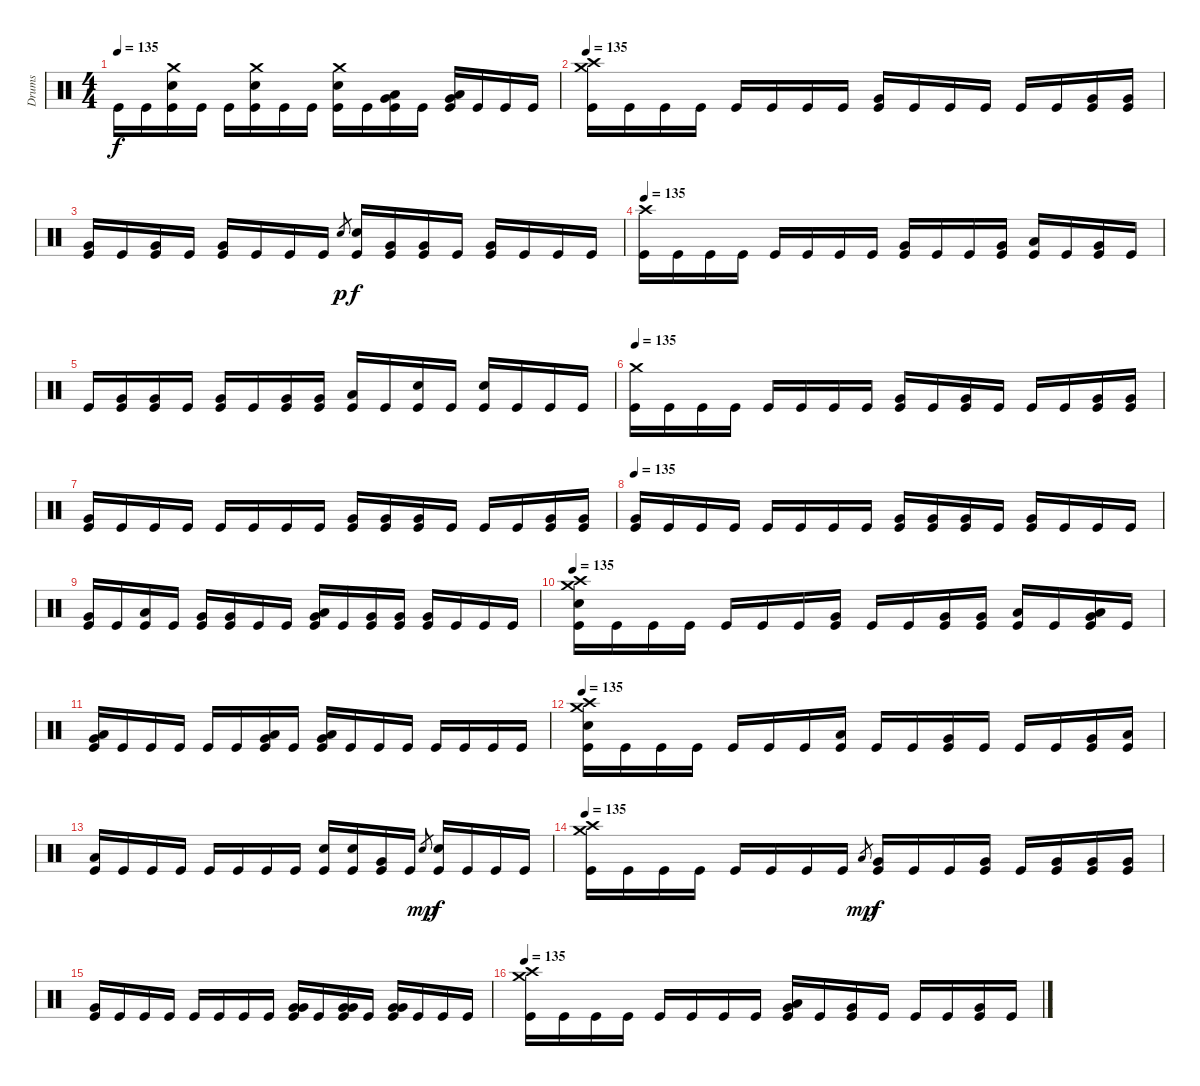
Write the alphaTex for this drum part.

\track ("Drums" "Drums") {instrument percussion}
\staff {score}
\articulation defaults
\ts (4 4)
\tempo 135
\clef neutral
\ks c "Kick (hit)".16{dy f} "Kick (hit)".16
("Kick (hit)" "Electric Snare (hit)" "Crash medium (hit)").16 "Kick (hit)".16 "Kick (hit)".16 ("Kick (hit)" "Electric Snare (hit)" "Crash medium (hit)").16 "Kick (hit)".16 "Kick (hit)".16 ("Kick (hit)" "Electric Snare (hit)" "Crash medium (hit)").16 "Kick (hit)".16 ("Kick (hit)" "Very Low Tom (hit)" "Low Floor Tom (hit)").16 "Kick (hit)".16 ("Kick (hit)" "Very Low Tom (hit)" "Low Floor Tom (hit)").16 "Kick (hit)".16 "Kick (hit)".16 "Kick (hit)".16 |
\tempo 135
("Kick (hit)" "Crash high (hit)" "Crash medium (hit)").16 "Kick (hit)".16 "Kick (hit)".16 "Kick (hit)".16 "Kick (hit)".16 "Kick (hit)".16 "Kick (hit)".16 "Kick (hit)".16 ("Kick (hit)" "Very Low Tom (hit)").16 "Kick (hit)".16 "Kick (hit)".16 "Kick (hit)".16 "Kick (hit)".16 "Kick (hit)".16 ("Kick (hit)" "Very Low Tom (hit)").16 ("Kick (hit)" "Very Low Tom (hit)").16 |
("Kick (hit)" "Very Low Tom (hit)").16 "Kick (hit)".16 ("Kick (hit)" "Very Low Tom (hit)").16 "Kick (hit)".16 ("Kick (hit)" "Very Low Tom (hit)").16 "Kick (hit)".16 "Kick (hit)".16 "Kick (hit)".16 "Electric Snare (hit)".8{gr dy p} ("Kick (hit)" "Electric Snare (hit)").16{dy f} ("Kick (hit)" "Very Low Tom (hit)").16 ("Kick (hit)" "Very Low Tom (hit)").16 "Kick (hit)".16 ("Kick (hit)" "Very Low Tom (hit)").16 "Kick (hit)".16 "Kick (hit)".16 "Kick (hit)".16 |
\tempo 135
("Kick (hit)" "Crash high (hit)").16 "Kick (hit)".16 "Kick (hit)".16 "Kick (hit)".16 "Kick (hit)".16 "Kick (hit)".16 "Kick (hit)".16 "Kick (hit)".16 ("Kick (hit)" "Very Low Tom (hit)").16 "Kick (hit)".16 "Kick (hit)".16 ("Kick (hit)" "Very Low Tom (hit)").16 ("Kick (hit)" "Low Floor Tom (hit)").16 "Kick (hit)".16 ("Kick (hit)" "Very Low Tom (hit)").16 "Kick (hit)".16 |
"Kick (hit)".16 ("Kick (hit)" "Very Low Tom (hit)").16 ("Kick (hit)" "Very Low Tom (hit)").16 "Kick (hit)".16 ("Kick (hit)" "Very Low Tom (hit)").16 "Kick (hit)".16 ("Kick (hit)" "Very Low Tom (hit)").16 ("Kick (hit)" "Very Low Tom (hit)").16 ("Kick (hit)" "Low Floor Tom (hit)").16 "Kick (hit)".16 ("Kick (hit)" "Electric Snare (hit)").16 "Kick (hit)".16 ("Kick (hit)" "Electric Snare (hit)").16 "Kick (hit)".16 "Kick (hit)".16 "Kick (hit)".16 |
\tempo 135
("Kick (hit)" "Crash medium (hit)").16 "Kick (hit)".16 "Kick (hit)".16 "Kick (hit)".16 "Kick (hit)".16 "Kick (hit)".16 "Kick (hit)".16 "Kick (hit)".16 ("Kick (hit)" "Very Low Tom (hit)").16 "Kick (hit)".16 ("Kick (hit)" "Very Low Tom (hit)").16 "Kick (hit)".16 "Kick (hit)".16 "Kick (hit)".16 ("Kick (hit)" "Very Low Tom (hit)").16 ("Kick (hit)" "Very Low Tom (hit)").16 |
("Kick (hit)" "Very Low Tom (hit)").16 "Kick (hit)".16 "Kick (hit)".16 "Kick (hit)".16 "Kick (hit)".16 "Kick (hit)".16 "Kick (hit)".16 "Kick (hit)".16 ("Kick (hit)" "Very Low Tom (hit)").16 ("Kick (hit)" "Very Low Tom (hit)").16 ("Kick (hit)" "Very Low Tom (hit)").16 "Kick (hit)".16 "Kick (hit)".16 "Kick (hit)".16 ("Kick (hit)" "Very Low Tom (hit)").16 ("Kick (hit)" "Very Low Tom (hit)").16 |
\tempo 135
("Kick (hit)" "Very Low Tom (hit)").16 "Kick (hit)".16 "Kick (hit)".16 "Kick (hit)".16 "Kick (hit)".16 "Kick (hit)".16 "Kick (hit)".16 "Kick (hit)".16 ("Kick (hit)" "Very Low Tom (hit)").16 ("Kick (hit)" "Very Low Tom (hit)").16 ("Kick (hit)" "Very Low Tom (hit)").16 "Kick (hit)".16 ("Kick (hit)" "Very Low Tom (hit)").16 "Kick (hit)".16 "Kick (hit)".16 "Kick (hit)".16 |
("Kick (hit)" "Very Low Tom (hit)").16 "Kick (hit)".16 ("Kick (hit)" "Low Tom (hit)").16 "Kick (hit)".16 ("Kick (hit)" "Very Low Tom (hit)").16 ("Kick (hit)" "Very Low Tom (hit)").16 "Kick (hit)".16 "Kick (hit)".16 ("Kick (hit)" "Low Tom (hit)" "Very Low Tom (hit)").16 "Kick (hit)".16 ("Kick (hit)" "Very Low Tom (hit)").16 ("Kick (hit)" "Very Low Tom (hit)").16 ("Kick (hit)" "Very Low Tom (hit)").16 "Kick (hit)".16 "Kick (hit)".16 "Kick (hit)".16 |
\tempo 135
("Kick (hit)" "Electric Snare (hit)" "Crash high (hit)" "Crash medium (hit)").16 "Kick (hit)".16 "Kick (hit)".16 "Kick (hit)".16 "Kick (hit)".16 "Kick (hit)".16 "Kick (hit)".16 ("Kick (hit)" "Very Low Tom (hit)").16 "Kick (hit)".16 "Kick (hit)".16 ("Kick (hit)" "Very Low Tom (hit)").16 ("Kick (hit)" "Very Low Tom (hit)").16 ("Kick (hit)" "Low Floor Tom (hit)").16 "Kick (hit)".16 ("Kick (hit)" "Very Low Tom (hit)" "Low Floor Tom (hit)").16 "Kick (hit)".16 |
("Kick (hit)" "Very Low Tom (hit)" "Low Floor Tom (hit)").16 "Kick (hit)".16 "Kick (hit)".16 "Kick (hit)".16 "Kick (hit)".16 "Kick (hit)".16 ("Kick (hit)" "Very Low Tom (hit)" "Low Floor Tom (hit)").16 "Kick (hit)".16 ("Kick (hit)" "Very Low Tom (hit)" "Low Floor Tom (hit)").16 "Kick (hit)".16 "Kick (hit)".16 "Kick (hit)".16 "Kick (hit)".16 "Kick (hit)".16 "Kick (hit)".16 "Kick (hit)".16 |
\tempo 135
("Kick (hit)" "Electric Snare (hit)" "Crash high (hit)" "Crash medium (hit)").16 "Kick (hit)".16 "Kick (hit)".16 "Kick (hit)".16 "Kick (hit)".16 "Kick (hit)".16 "Kick (hit)".16 ("Kick (hit)" "Low Tom (hit)").16 "Kick (hit)".16 "Kick (hit)".16 ("Kick (hit)" "Very Low Tom (hit)").16 "Kick (hit)".16 "Kick (hit)".16 "Kick (hit)".16 ("Kick (hit)" "Very Low Tom (hit)").16 ("Kick (hit)" "Low Floor Tom (hit)").16 |
("Kick (hit)" "Low Floor Tom (hit)").16 "Kick (hit)".16 "Kick (hit)".16 "Kick (hit)".16 "Kick (hit)".16 "Kick (hit)".16 "Kick (hit)".16 "Kick (hit)".16 ("Kick (hit)" "Electric Snare (hit)").16 ("Kick (hit)" "Electric Snare (hit)").16 ("Kick (hit)" "Very Low Tom (hit)").16 "Kick (hit)".16 "Electric Snare (hit)".8{gr dy mp} ("Kick (hit)" "Electric Snare (hit)").16{dy f} "Kick (hit)".16 "Kick (hit)".16 "Kick (hit)".16 |
\tempo 135
("Kick (hit)" "Crash high (hit)" "Crash medium (hit)").16 "Kick (hit)".16 "Kick (hit)".16 "Kick (hit)".16 "Kick (hit)".16 "Kick (hit)".16 "Kick (hit)".16 "Kick (hit)".16 "Low Floor Tom (hit)".8{gr dy mp} ("Kick (hit)" "Very Low Tom (hit)").16{dy f} "Kick (hit)".16 "Kick (hit)".16 ("Kick (hit)" "Very Low Tom (hit)").16 "Kick (hit)".16 ("Kick (hit)" "Very Low Tom (hit)").16 ("Kick (hit)" "Very Low Tom (hit)").16 ("Kick (hit)" "Very Low Tom (hit)").16 |
("Kick (hit)" "Very Low Tom (hit)").16 "Kick (hit)".16 "Kick (hit)".16 "Kick (hit)".16 "Kick (hit)".16 "Kick (hit)".16 "Kick (hit)".16 "Kick (hit)".16 ("Kick (hit)" "Very Low Tom (hit)" "Very Low Tom (hit)").16 "Kick (hit)".16 ("Kick (hit)" "Very Low Tom (hit)" "Very Low Tom (hit)").16 "Kick (hit)".16 ("Kick (hit)" "Very Low Tom (hit)" "Very Low Tom (hit)").16 "Kick (hit)".16 "Kick (hit)".16 "Kick (hit)".16 |
\tempo 135
("Kick (hit)" "Crash high (hit)" "Crash medium (hit)").16 "Kick (hit)".16 "Kick (hit)".16 "Kick (hit)".16 "Kick (hit)".16 "Kick (hit)".16 "Kick (hit)".16 "Kick (hit)".16 ("Kick (hit)" "Very Low Tom (hit)" "Low Tom (hit)").16 "Kick (hit)".16 ("Kick (hit)" "Very Low Tom (hit)").16 "Kick (hit)".16 "Kick (hit)".16 "Kick (hit)".16 ("Kick (hit)" "Very Low Tom (hit)").16 "Kick (hit)".16
